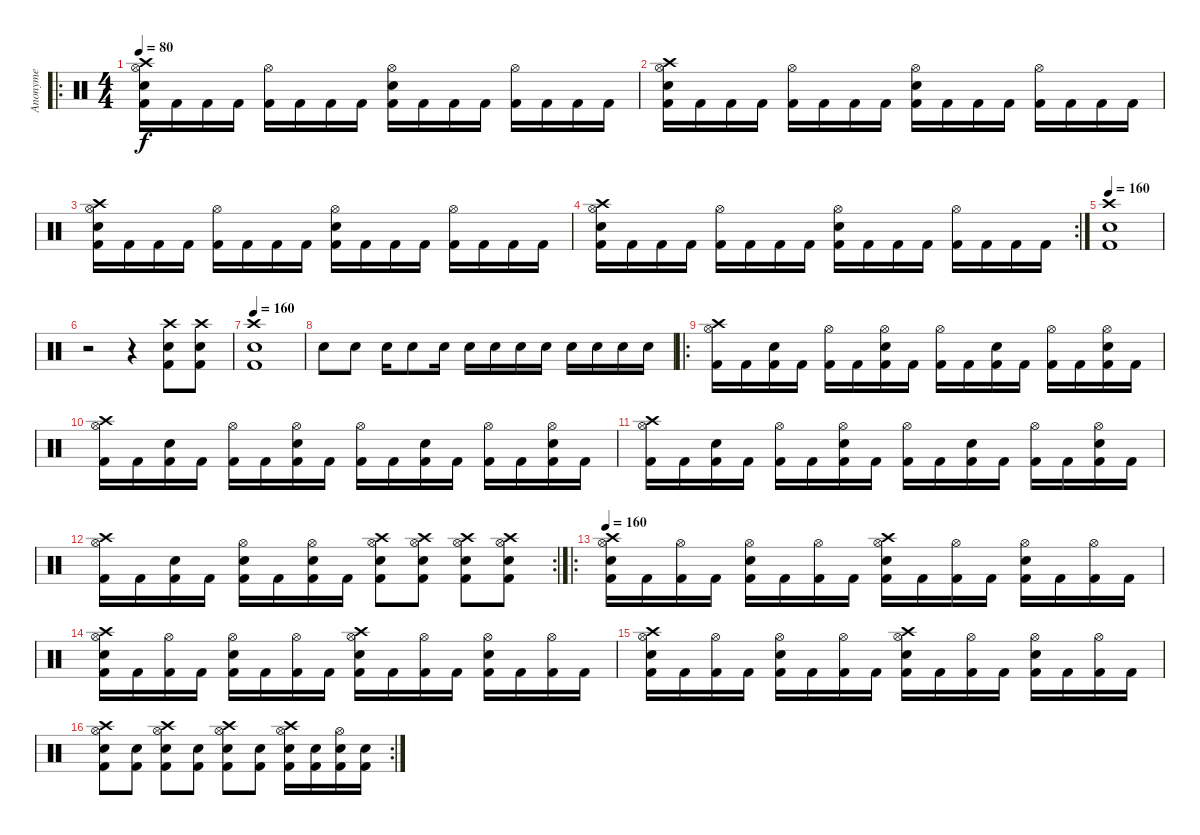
\track ("Anonyme" "Anonyme") {instrument percussion}
\staff {score}
\articulation defaults
\ro
\ts (4 4)
\tempo 80
\clef neutral
\ks c
("Crash high (hit)" "Electric Snare (hit)" "Kick (hit) 2" "Hi-Hat (open)").16{dy f} "Kick (hit) 2".16 "Kick (hit) 2".16 "Kick (hit) 2".16 ("Kick (hit) 2" "Hi-Hat (open)").16 "Kick (hit) 2".16 "Kick (hit) 2".16 "Kick (hit) 2".16 ("Electric Snare (hit)" "Kick (hit) 2" "Hi-Hat (open)").16 "Kick (hit) 2".16 "Kick (hit) 2".16 "Kick (hit) 2".16 ("Kick (hit) 2" "Hi-Hat (open)").16 "Kick (hit) 2".16 "Kick (hit) 2".16 "Kick (hit) 2".16 |
("Crash high (hit)" "Electric Snare (hit)" "Kick (hit) 2" "Hi-Hat (open)").16 "Kick (hit) 2".16 "Kick (hit) 2".16 "Kick (hit) 2".16 ("Kick (hit) 2" "Hi-Hat (open)").16 "Kick (hit) 2".16 "Kick (hit) 2".16 "Kick (hit) 2".16 ("Electric Snare (hit)" "Kick (hit) 2" "Hi-Hat (open)").16 "Kick (hit) 2".16 "Kick (hit) 2".16 "Kick (hit) 2".16 ("Kick (hit) 2" "Hi-Hat (open)").16 "Kick (hit) 2".16 "Kick (hit) 2".16 "Kick (hit) 2".16 |
("Crash high (hit)" "Electric Snare (hit)" "Kick (hit) 2" "Hi-Hat (open)").16 "Kick (hit) 2".16 "Kick (hit) 2".16 "Kick (hit) 2".16 ("Kick (hit) 2" "Hi-Hat (open)").16 "Kick (hit) 2".16 "Kick (hit) 2".16 "Kick (hit) 2".16 ("Electric Snare (hit)" "Kick (hit) 2" "Hi-Hat (open)").16 "Kick (hit) 2".16 "Kick (hit) 2".16 "Kick (hit) 2".16 ("Kick (hit) 2" "Hi-Hat (open)").16 "Kick (hit) 2".16 "Kick (hit) 2".16 "Kick (hit) 2".16 |
\rc 2
("Crash high (hit)" "Electric Snare (hit)" "Kick (hit) 2" "Hi-Hat (open)").16 "Kick (hit) 2".16 "Kick (hit) 2".16 "Kick (hit) 2".16 ("Kick (hit) 2" "Hi-Hat (open)").16 "Kick (hit) 2".16 "Kick (hit) 2".16 "Kick (hit) 2".16 ("Electric Snare (hit)" "Kick (hit) 2" "Hi-Hat (open)").16 "Kick (hit) 2".16 "Kick (hit) 2".16 "Kick (hit) 2".16 ("Kick (hit) 2" "Hi-Hat (open)").16 "Kick (hit) 2".16 "Kick (hit) 2".16 "Kick (hit) 2".16 |
\tempo 160
("Crash high (hit)" "Electric Snare (hit)" "Kick (hit) 2").1 |
r.2 r.4 ("Crash high (hit)" "Electric Snare (hit)" "Kick (hit) 2").8 ("Crash high (hit)" "Electric Snare (hit)" "Kick (hit) 2").8 |
\tempo 160
("Crash high (hit)" "Electric Snare (hit)" "Kick (hit) 2").1 |
"Electric Snare (hit)".8 "Electric Snare (hit)".8 "Electric Snare (hit)".16 "Electric Snare (hit)".8 "Electric Snare (hit)".16 "Electric Snare (hit)".16 "Electric Snare (hit)".16 "Electric Snare (hit)".16 "Electric Snare (hit)".16 "Electric Snare (hit)".16 "Electric Snare (hit)".16 "Electric Snare (hit)".16 "Electric Snare (hit)".16 |
\ro
("Crash high (hit)" "Kick (hit) 2" "Hi-Hat (open)").16 "Kick (hit) 2".16 ("Electric Snare (hit)" "Kick (hit) 2").16 "Kick (hit) 2".16 ("Kick (hit) 2" "Hi-Hat (open)").16 "Kick (hit) 2".16 ("Electric Snare (hit)" "Kick (hit) 2" "Hi-Hat (open)").16 "Kick (hit) 2".16 ("Kick (hit) 2" "Hi-Hat (open)").16 "Kick (hit) 2".16 ("Electric Snare (hit)" "Kick (hit) 2").16 "Kick (hit) 2".16 ("Kick (hit) 2" "Hi-Hat (open)").16 "Kick (hit) 2".16 ("Electric Snare (hit)" "Kick (hit) 2" "Hi-Hat (open)").16 "Kick (hit) 2".16 |
("Crash high (hit)" "Kick (hit) 2" "Hi-Hat (open)").16 "Kick (hit) 2".16 ("Electric Snare (hit)" "Kick (hit) 2").16 "Kick (hit) 2".16 ("Kick (hit) 2" "Hi-Hat (open)").16 "Kick (hit) 2".16 ("Electric Snare (hit)" "Kick (hit) 2" "Hi-Hat (open)").16 "Kick (hit) 2".16 ("Kick (hit) 2" "Hi-Hat (open)").16 "Kick (hit) 2".16 ("Electric Snare (hit)" "Kick (hit) 2").16 "Kick (hit) 2".16 ("Kick (hit) 2" "Hi-Hat (open)").16 "Kick (hit) 2".16 ("Electric Snare (hit)" "Kick (hit) 2" "Hi-Hat (open)").16 "Kick (hit) 2".16 |
("Crash high (hit)" "Kick (hit) 2" "Hi-Hat (open)").16 "Kick (hit) 2".16 ("Electric Snare (hit)" "Kick (hit) 2").16 "Kick (hit) 2".16 ("Kick (hit) 2" "Hi-Hat (open)").16 "Kick (hit) 2".16 ("Electric Snare (hit)" "Kick (hit) 2" "Hi-Hat (open)").16 "Kick (hit) 2".16 ("Kick (hit) 2" "Hi-Hat (open)").16 "Kick (hit) 2".16 ("Electric Snare (hit)" "Kick (hit) 2").16 "Kick (hit) 2".16 ("Kick (hit) 2" "Hi-Hat (open)").16 "Kick (hit) 2".16 ("Electric Snare (hit)" "Kick (hit) 2" "Hi-Hat (open)").16 "Kick (hit) 2".16 |
\rc 2
("Crash high (hit)" "Kick (hit) 2" "Hi-Hat (open)").16 "Kick (hit) 2".16 ("Electric Snare (hit)" "Kick (hit) 2").16 "Kick (hit) 2".16 ("Electric Snare (hit)" "Kick (hit) 2" "Hi-Hat (open)").16 "Kick (hit) 2".16 ("Electric Snare (hit)" "Kick (hit) 2" "Hi-Hat (open)").16 "Kick (hit) 2".16 ("Crash high (hit)" "Electric Snare (hit)" "Kick (hit) 2" "Hi-Hat (open)").8 ("Crash high (hit)" "Electric Snare (hit)" "Kick (hit) 2" "Hi-Hat (open)").8 ("Crash high (hit)" "Electric Snare (hit)" "Kick (hit) 2" "Hi-Hat (open)").8 ("Crash high (hit)" "Electric Snare (hit)" "Kick (hit) 2" "Hi-Hat (open)").8 |
\ro
\tempo 160
("Crash high (hit)" "Hi-Hat (open)" "Snare (hit) 2" "Kick (hit) 2").16 "Kick (hit) 2".16 ("Hi-Hat (open)" "Kick (hit) 2").16 "Kick (hit) 2".16 ("Hi-Hat (open)" "Snare (hit) 2" "Kick (hit) 2").16 "Kick (hit) 2".16 ("Hi-Hat (open)" "Kick (hit) 2").16 "Kick (hit) 2".16 ("Crash high (hit)" "Hi-Hat (open)" "Snare (hit) 2" "Kick (hit) 2").16 "Kick (hit) 2".16 ("Hi-Hat (open)" "Kick (hit) 2").16 "Kick (hit) 2".16 ("Hi-Hat (open)" "Snare (hit) 2" "Kick (hit) 2").16 "Kick (hit) 2".16 ("Hi-Hat (open)" "Kick (hit) 2").16 "Kick (hit) 2".16 |
("Crash high (hit)" "Hi-Hat (open)" "Snare (hit) 2" "Kick (hit) 2").16 "Kick (hit) 2".16 ("Hi-Hat (open)" "Kick (hit) 2").16 "Kick (hit) 2".16 ("Hi-Hat (open)" "Snare (hit) 2" "Kick (hit) 2").16 "Kick (hit) 2".16 ("Hi-Hat (open)" "Kick (hit) 2").16 "Kick (hit) 2".16 ("Crash high (hit)" "Hi-Hat (open)" "Snare (hit) 2" "Kick (hit) 2").16 "Kick (hit) 2".16 ("Hi-Hat (open)" "Kick (hit) 2").16 "Kick (hit) 2".16 ("Hi-Hat (open)" "Snare (hit) 2" "Kick (hit) 2").16 "Kick (hit) 2".16 ("Hi-Hat (open)" "Kick (hit) 2").16 "Kick (hit) 2".16 |
("Crash high (hit)" "Hi-Hat (open)" "Snare (hit) 2" "Kick (hit) 2").16 "Kick (hit) 2".16 ("Hi-Hat (open)" "Kick (hit) 2").16 "Kick (hit) 2".16 ("Hi-Hat (open)" "Snare (hit) 2" "Kick (hit) 2").16 "Kick (hit) 2".16 ("Hi-Hat (open)" "Kick (hit) 2").16 "Kick (hit) 2".16 ("Crash high (hit)" "Hi-Hat (open)" "Snare (hit) 2" "Kick (hit) 2").16 "Kick (hit) 2".16 ("Hi-Hat (open)" "Kick (hit) 2").16 "Kick (hit) 2".16 ("Hi-Hat (open)" "Snare (hit) 2" "Kick (hit) 2").16 "Kick (hit) 2".16 ("Hi-Hat (open)" "Kick (hit) 2").16 "Kick (hit) 2".16 |
\rc 2
("Crash high (hit)" "Hi-Hat (open)" "Snare (hit) 2" "Kick (hit) 2").8 ("Snare (hit) 2" "Kick (hit) 2").8 ("Crash high (hit)" "Hi-Hat (open)" "Snare (hit) 2" "Kick (hit) 2").8 ("Snare (hit) 2" "Kick (hit) 2").8 ("Crash high (hit)" "Hi-Hat (open)" "Snare (hit) 2" "Kick (hit) 2").8 ("Snare (hit) 2" "Kick (hit) 2").8 ("Crash high (hit)" "Hi-Hat (open)" "Snare (hit) 2" "Kick (hit) 2").16 ("Snare (hit) 2" "Kick (hit) 2").16 ("Hi-Hat (open)" "Snare (hit) 2" "Kick (hit) 2").16 ("Snare (hit) 2" "Kick (hit) 2").16
